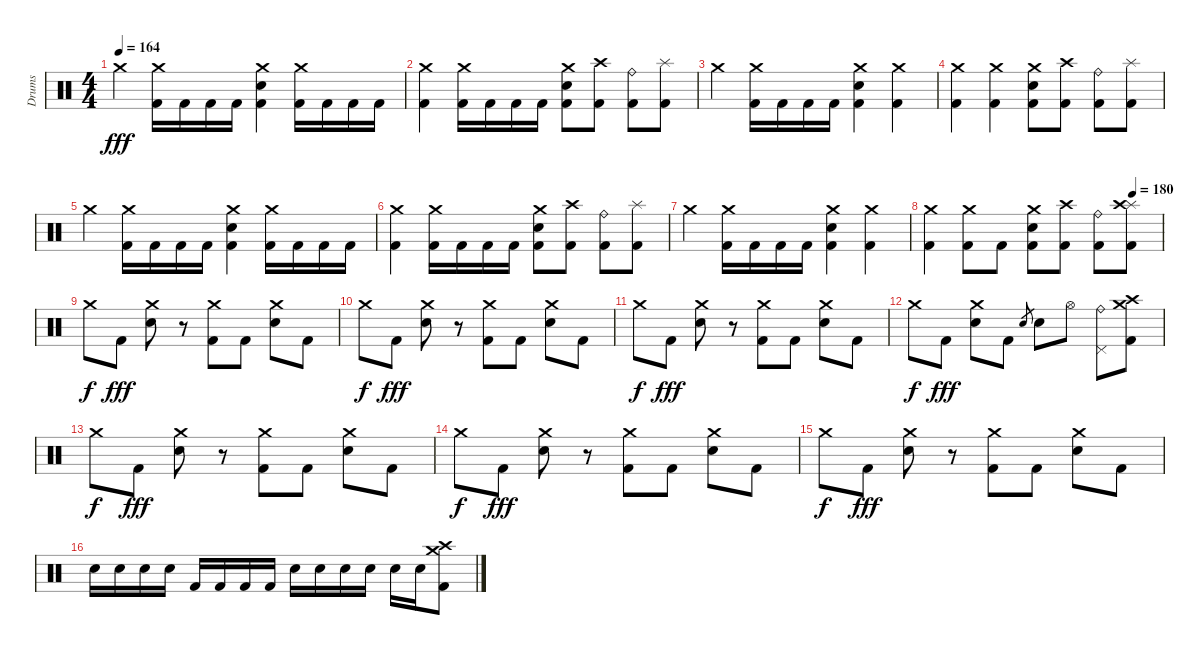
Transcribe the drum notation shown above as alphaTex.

\track ("Drums" "Drums") {instrument percussion}
\staff {score}
\articulation defaults
\ts (4 4)
\tempo 164
\clef neutral
\ks c "Crash medium (hit)".4{dy fff}
("Crash medium (hit)" "Kick (hit) 2").16 "Kick (hit) 2".16 "Kick (hit) 2".16 "Kick (hit) 2".16 ("Crash medium (hit)" "Electric Snare (hit)" "Kick (hit) 2").4 ("Crash medium (hit)" "Kick (hit) 2").16 "Kick (hit) 2".16 "Kick (hit) 2".16 "Kick (hit) 2".16 |
("Crash medium (hit)" "Kick (hit) 2").4 ("Crash medium (hit)" "Kick (hit) 2").16 "Kick (hit) 2".16 "Kick (hit) 2".16 "Kick (hit) 2".16 ("Crash medium (hit)" "Electric Snare (hit)" "Kick (hit) 2").8 ("Crash high (hit)" "Kick (hit) 2").8 ("Ride (bell)" "Kick (hit) 2").8 ("Splash (hit)" "Kick (hit) 2").8 |
"Crash medium (hit)".4 ("Crash medium (hit)" "Kick (hit) 2").16 "Kick (hit) 2".16 "Kick (hit) 2".16 "Kick (hit) 2".16 ("Crash medium (hit)" "Electric Snare (hit)" "Kick (hit) 2").4 ("Crash medium (hit)" "Kick (hit) 2").4 |
("Crash medium (hit)" "Kick (hit) 2").4 ("Crash medium (hit)" "Kick (hit) 2").4 ("Crash medium (hit)" "Electric Snare (hit)" "Kick (hit) 2").8 ("Crash high (hit)" "Kick (hit) 2").8 ("Ride (bell)" "Kick (hit) 2").8 ("Splash (hit)" "Kick (hit) 2").8 |
"Crash medium (hit)".4 ("Crash medium (hit)" "Kick (hit) 2").16 "Kick (hit) 2".16 "Kick (hit) 2".16 "Kick (hit) 2".16 ("Crash medium (hit)" "Electric Snare (hit)" "Kick (hit) 2").4 ("Crash medium (hit)" "Kick (hit) 2").16 "Kick (hit) 2".16 "Kick (hit) 2".16 "Kick (hit) 2".16 |
("Crash medium (hit)" "Kick (hit) 2").4 ("Crash medium (hit)" "Kick (hit) 2").16 "Kick (hit) 2".16 "Kick (hit) 2".16 "Kick (hit) 2".16 ("Crash medium (hit)" "Electric Snare (hit)" "Kick (hit) 2").8 ("Crash high (hit)" "Kick (hit) 2").8 ("Ride (bell)" "Kick (hit) 2").8 ("Splash (hit)" "Kick (hit) 2").8 |
"Crash medium (hit)".4 ("Crash medium (hit)" "Kick (hit) 2").16 "Kick (hit) 2".16 "Kick (hit) 2".16 "Kick (hit) 2".16 ("Crash medium (hit)" "Electric Snare (hit)" "Kick (hit) 2").4 ("Crash medium (hit)" "Kick (hit) 2").4 |
\tempo (180 0.875)
("Crash medium (hit)" "Kick (hit) 2").4 ("Crash medium (hit)" "Kick (hit) 2").8 "Kick (hit) 2".8 ("Crash medium (hit)" "Electric Snare (hit)" "Kick (hit) 2").8 ("Crash high (hit)" "Kick (hit) 2").8 ("Ride (bell)" "Kick (hit) 2").8 ("Splash (hit)" "Crash high (hit)" "Kick (hit) 2").8 |
"Crash medium (hit)".8{dy f} "Kick (hit) 2".8{dy fff} ("Crash medium (hit)" "Electric Snare (hit)").8 r.8 ("Crash medium (hit)" "Kick (hit) 2").8 "Kick (hit) 2".8 ("Crash medium (hit)" "Electric Snare (hit)").8 "Kick (hit) 2".8 |
"Crash medium (hit)".8{dy f} "Kick (hit) 2".8{dy fff} ("Crash medium (hit)" "Electric Snare (hit)").8 r.8 ("Crash medium (hit)" "Kick (hit) 2").8 "Kick (hit) 2".8 ("Crash medium (hit)" "Electric Snare (hit)").8 "Kick (hit) 2".8 |
"Crash medium (hit)".8{dy f} "Kick (hit) 2".8{dy fff} ("Crash medium (hit)" "Electric Snare (hit)").8 r.8 ("Crash medium (hit)" "Kick (hit) 2").8 "Kick (hit) 2".8 ("Crash medium (hit)" "Electric Snare (hit)").8 "Kick (hit) 2".8 |
"Crash medium (hit)".8{dy f} "Kick (hit) 2".8{dy fff} ("Crash medium (hit)" "Electric Snare (hit)").8 "Kick (hit) 2".8 "Electric Snare (hit)".8{gr} "Electric Snare (hit)".8 "Hi-Hat (open)".8 ("Ride (bell)" "Pedal Hi-Hat (hit)").8 ("Crash medium (hit)" "Crash high (hit)" "Kick (hit) 2").8 |
"Crash medium (hit)".8{dy f} "Kick (hit) 2".8{dy fff} ("Crash medium (hit)" "Electric Snare (hit)").8 r.8 ("Crash medium (hit)" "Kick (hit) 2").8 "Kick (hit) 2".8 ("Crash medium (hit)" "Electric Snare (hit)").8 "Kick (hit) 2".8 |
"Crash medium (hit)".8{dy f} "Kick (hit) 2".8{dy fff} ("Crash medium (hit)" "Electric Snare (hit)").8 r.8 ("Crash medium (hit)" "Kick (hit) 2").8 "Kick (hit) 2".8 ("Crash medium (hit)" "Electric Snare (hit)").8 "Kick (hit) 2".8 |
"Crash medium (hit)".8{dy f} "Kick (hit) 2".8{dy fff} ("Crash medium (hit)" "Electric Snare (hit)").8 r.8 ("Crash medium (hit)" "Kick (hit) 2").8 "Kick (hit) 2".8 ("Crash medium (hit)" "Electric Snare (hit)").8 "Kick (hit) 2".8 |
"Electric Snare (hit)".16 "Electric Snare (hit)".16 "Electric Snare (hit)".16 "Electric Snare (hit)".16 "Kick (hit) 2".16 "Kick (hit) 2".16 "Kick (hit) 2".16 "Kick (hit) 2".16 "Electric Snare (hit)".16 "Electric Snare (hit)".16 "Electric Snare (hit)".16 "Electric Snare (hit)".16 "Electric Snare (hit)".16 "Electric Snare (hit)".16 ("Crash medium (hit)" "Crash high (hit)" "Kick (hit) 2").8
